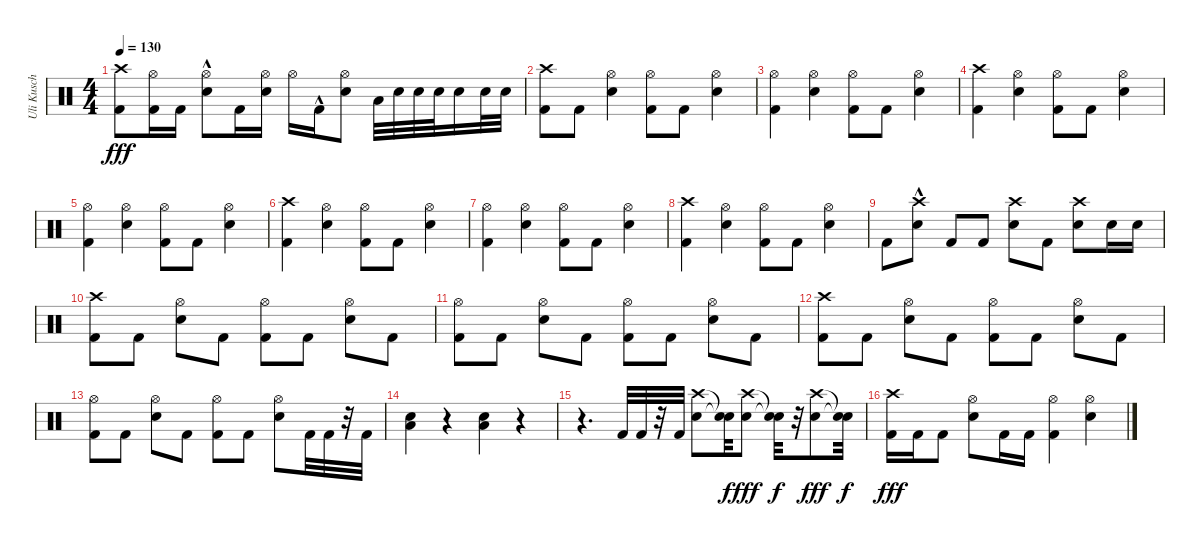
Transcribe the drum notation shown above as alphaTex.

\track ("Uli Kusch" "Uli Kusch") {instrument percussion}
\staff {score}
\articulation defaults
\ts (4 4)
\tempo 130
\clef neutral
\ks c
("Kick (hit) 2" "Crash high (hit)").8{dy fff} ("Kick (hit) 2" "Hi-Hat (open)").16 "Kick (hit) 2".16 ("Hi-Hat (open)"{hac} "Electric Snare (hit)"{hac}).8 "Kick (hit) 2".16 ("Hi-Hat (open)" "Electric Snare (hit)").16 "Hi-Hat (open)".16 "Kick (hit) 2"{hac}.16 ("Hi-Hat (open)" "Electric Snare (hit)").8 "Low Tom (hit)".32 "Electric Snare (hit)".32 "Electric Snare (hit)".32 "Electric Snare (hit)".32 "Electric Snare (hit)".16 "Electric Snare (hit)".32 "Electric Snare (hit)".32 |
("Kick (hit) 2" "Crash high (hit)").8 "Kick (hit) 2".8 ("Electric Snare (hit)" "Hi-Hat (open)").4 ("Kick (hit) 2" "Hi-Hat (open)").8 "Kick (hit) 2".8 ("Electric Snare (hit)" "Hi-Hat (open)").4 |
("Hi-Hat (open)" "Kick (hit) 2").4 ("Electric Snare (hit)" "Hi-Hat (open)").4 ("Kick (hit) 2" "Hi-Hat (open)").8 "Kick (hit) 2".8 ("Electric Snare (hit)" "Hi-Hat (open)").4 |
("Kick (hit) 2" "Crash high (hit)").4 ("Electric Snare (hit)" "Hi-Hat (open)").4 ("Kick (hit) 2" "Hi-Hat (open)").8 "Kick (hit) 2".8 ("Electric Snare (hit)" "Hi-Hat (open)").4 |
("Hi-Hat (open)" "Kick (hit) 2").4 ("Electric Snare (hit)" "Hi-Hat (open)").4 ("Kick (hit) 2" "Hi-Hat (open)").8 "Kick (hit) 2".8 ("Electric Snare (hit)" "Hi-Hat (open)").4 |
("Kick (hit) 2" "Crash high (hit)").4 ("Electric Snare (hit)" "Hi-Hat (open)").4 ("Kick (hit) 2" "Hi-Hat (open)").8 "Kick (hit) 2".8 ("Electric Snare (hit)" "Hi-Hat (open)").4 |
("Hi-Hat (open)" "Kick (hit) 2").4 ("Electric Snare (hit)" "Hi-Hat (open)").4 ("Kick (hit) 2" "Hi-Hat (open)").8 "Kick (hit) 2".8 ("Electric Snare (hit)" "Hi-Hat (open)").4 |
("Kick (hit) 2" "Crash high (hit)").4 ("Electric Snare (hit)" "Hi-Hat (open)").4 ("Kick (hit) 2" "Hi-Hat (open)").8 "Kick (hit) 2".8 ("Electric Snare (hit)" "Hi-Hat (open)").4 |
"Kick (hit) 2".8 ("Electric Snare (hit)"{hac} "Crash high (hit)"{hac}).8 "Kick (hit) 2".8 "Kick (hit) 2".8 ("Electric Snare (hit)" "Crash high (hit)").8 "Kick (hit) 2".8 ("Crash high (hit)" "Electric Snare (hit)").8 "Electric Snare (hit)".16 "Electric Snare (hit)".16 |
("Kick (hit) 2" "Crash high (hit)").8 "Kick (hit) 2".8 ("Electric Snare (hit)" "Hi-Hat (open)").8 "Kick (hit) 2".8 ("Kick (hit) 2" "Hi-Hat (open)").8 "Kick (hit) 2".8 ("Electric Snare (hit)" "Hi-Hat (open)").8 "Kick (hit) 2".8 |
("Kick (hit) 2" "Hi-Hat (open)").8 "Kick (hit) 2".8 ("Electric Snare (hit)" "Hi-Hat (open)").8 "Kick (hit) 2".8 ("Kick (hit) 2" "Hi-Hat (open)").8 "Kick (hit) 2".8 ("Electric Snare (hit)" "Hi-Hat (open)").8 "Kick (hit) 2".8 |
("Kick (hit) 2" "Crash high (hit)").8 "Kick (hit) 2".8 ("Electric Snare (hit)" "Hi-Hat (open)").8 "Kick (hit) 2".8 ("Kick (hit) 2" "Hi-Hat (open)").8 "Kick (hit) 2".8 ("Electric Snare (hit)" "Hi-Hat (open)").8 "Kick (hit) 2".8 |
("Kick (hit) 2" "Hi-Hat (open)").8 "Kick (hit) 2".8 ("Electric Snare (hit)" "Hi-Hat (open)").8 "Kick (hit) 2".8 ("Kick (hit) 2" "Hi-Hat (open)").8 "Kick (hit) 2".8 ("Electric Snare (hit)" "Hi-Hat (open)").8 "Kick (hit) 2".32 "Kick (hit) 2".32 r.32 "Kick (hit) 2".32 |
("Electric Snare (hit)" "Low Floor Tom (hit)").4 r.4 ("Electric Snare (hit)" "Low Floor Tom (hit)").4 r.4 |
r.4{d} "Kick (hit) 2".32 "Kick (hit) 2".32 r.32 "Kick (hit) 2".32 ("Electric Snare (hit)" "Crash high (hit)").8 ("Snare (hit)"{t} "Snare (hit)"{t}).32{dy f} ("Electric Snare (hit)" "Crash high (hit)").8{dy fff} ("Snare (hit)"{t} "Snare (hit)"{t}).32{dy f} r.32 ("Electric Snare (hit)" "Crash high (hit)").8{dy fff} ("Snare (hit)"{t} "Snare (hit)"{t}).32{dy f} |
("Crash high (hit)" "Kick (hit) 2").16{dy fff} "Kick (hit) 2".16 "Kick (hit) 2".8 ("Electric Snare (hit)" "Hi-Hat (open)").8 "Kick (hit) 2".16 "Kick (hit) 2".16 ("Hi-Hat (open)" "Kick (hit) 2").4 ("Electric Snare (hit)" "Hi-Hat (open)").4
